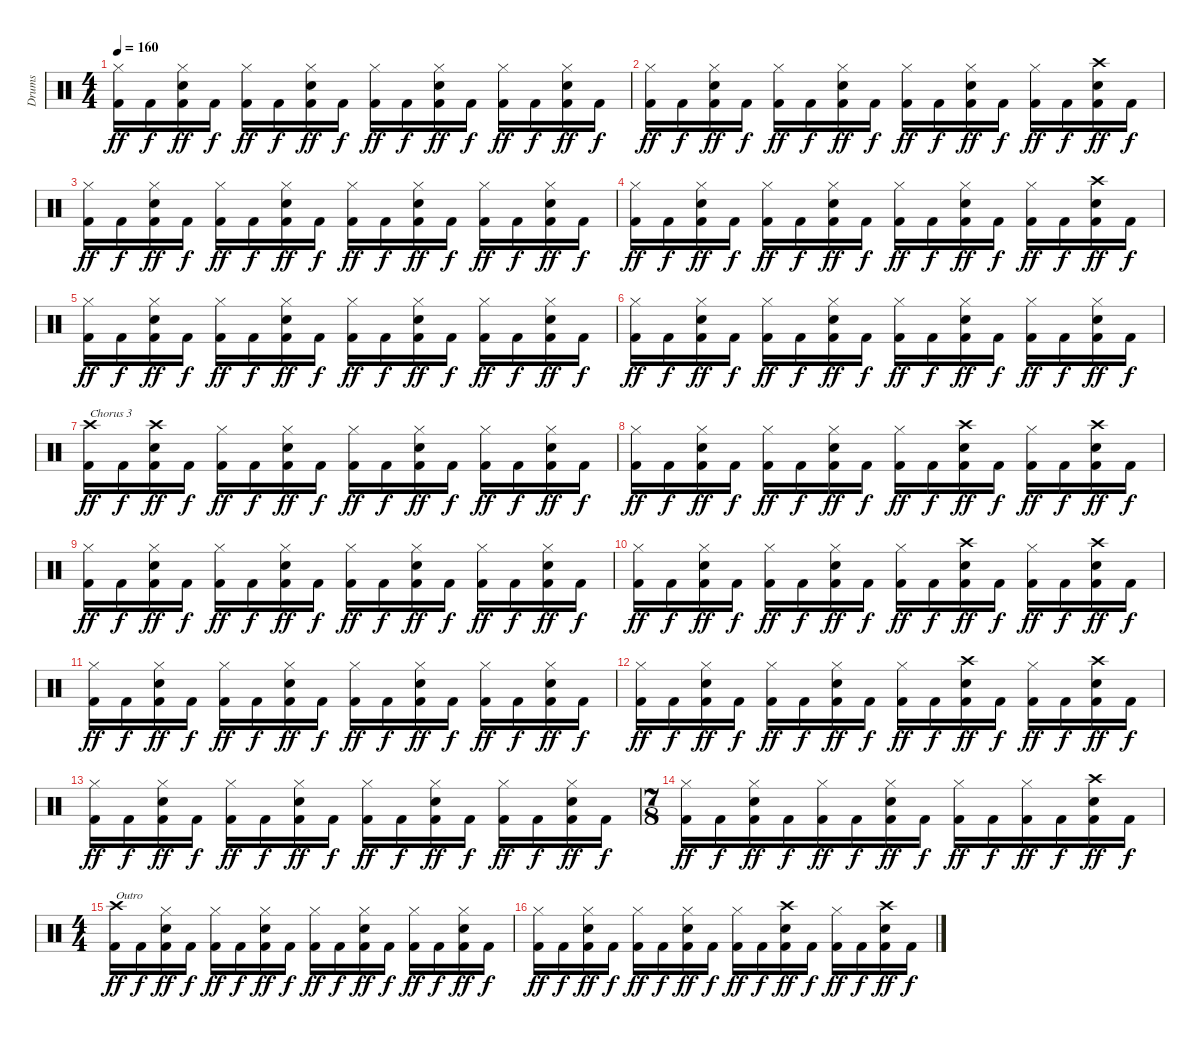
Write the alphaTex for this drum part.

\track ("Drums" "Drums") {instrument percussion}
\staff {score}
\articulation defaults
\ts (4 4)
\tempo 160
\clef neutral
\ks c
("Hi-Hat (closed)" "Kick (hit) 2").16{dy ff} "Kick (hit) 2".16{dy f} ("Hi-Hat (closed)" "Snare (hit) 2" "Kick (hit) 2").16{dy ff} "Kick (hit) 2".16{dy f} ("Hi-Hat (closed)" "Kick (hit) 2").16{dy ff} "Kick (hit) 2".16{dy f} ("Hi-Hat (closed)" "Snare (hit) 2" "Kick (hit) 2").16{dy ff} "Kick (hit) 2".16{dy f} ("Hi-Hat (closed)" "Kick (hit) 2").16{dy ff} "Kick (hit) 2".16{dy f} ("Hi-Hat (closed)" "Snare (hit) 2" "Kick (hit) 2").16{dy ff} "Kick (hit) 2".16{dy f} ("Hi-Hat (closed)" "Kick (hit) 2").16{dy ff} "Kick (hit) 2".16{dy f} ("Hi-Hat (closed)" "Snare (hit) 2" "Kick (hit) 2").16{dy ff} "Kick (hit) 2".16{dy f} |
("Hi-Hat (closed)" "Kick (hit) 2").16{dy ff} "Kick (hit) 2".16{dy f} ("Hi-Hat (closed)" "Snare (hit) 2" "Kick (hit) 2").16{dy ff} "Kick (hit) 2".16{dy f} ("Hi-Hat (closed)" "Kick (hit) 2").16{dy ff} "Kick (hit) 2".16{dy f} ("Hi-Hat (closed)" "Snare (hit) 2" "Kick (hit) 2").16{dy ff} "Kick (hit) 2".16{dy f} ("Hi-Hat (closed)" "Kick (hit) 2").16{dy ff} "Kick (hit) 2".16{dy f} ("Hi-Hat (closed)" "Snare (hit) 2" "Kick (hit) 2").16{dy ff} "Kick (hit) 2".16{dy f} ("Hi-Hat (closed)" "Kick (hit) 2").16{dy ff} "Kick (hit) 2".16{dy f} ("Crash high (hit)" "Snare (hit) 2" "Kick (hit) 2").16{dy ff} "Kick (hit) 2".16{dy f} |
("Hi-Hat (closed)" "Kick (hit) 2").16{dy ff} "Kick (hit) 2".16{dy f} ("Hi-Hat (closed)" "Snare (hit) 2" "Kick (hit) 2").16{dy ff} "Kick (hit) 2".16{dy f} ("Hi-Hat (closed)" "Kick (hit) 2").16{dy ff} "Kick (hit) 2".16{dy f} ("Hi-Hat (closed)" "Snare (hit) 2" "Kick (hit) 2").16{dy ff} "Kick (hit) 2".16{dy f} ("Hi-Hat (closed)" "Kick (hit) 2").16{dy ff} "Kick (hit) 2".16{dy f} ("Hi-Hat (closed)" "Snare (hit) 2" "Kick (hit) 2").16{dy ff} "Kick (hit) 2".16{dy f} ("Hi-Hat (closed)" "Kick (hit) 2").16{dy ff} "Kick (hit) 2".16{dy f} ("Hi-Hat (closed)" "Snare (hit) 2" "Kick (hit) 2").16{dy ff} "Kick (hit) 2".16{dy f} |
("Hi-Hat (closed)" "Kick (hit) 2").16{dy ff} "Kick (hit) 2".16{dy f} ("Hi-Hat (closed)" "Snare (hit) 2" "Kick (hit) 2").16{dy ff} "Kick (hit) 2".16{dy f} ("Hi-Hat (closed)" "Kick (hit) 2").16{dy ff} "Kick (hit) 2".16{dy f} ("Hi-Hat (closed)" "Snare (hit) 2" "Kick (hit) 2").16{dy ff} "Kick (hit) 2".16{dy f} ("Hi-Hat (closed)" "Kick (hit) 2").16{dy ff} "Kick (hit) 2".16{dy f} ("Hi-Hat (closed)" "Snare (hit) 2" "Kick (hit) 2").16{dy ff} "Kick (hit) 2".16{dy f} ("Hi-Hat (closed)" "Kick (hit) 2").16{dy ff} "Kick (hit) 2".16{dy f} ("Crash high (hit)" "Snare (hit) 2" "Kick (hit) 2").16{dy ff} "Kick (hit) 2".16{dy f} |
("Hi-Hat (closed)" "Kick (hit) 2").16{dy ff} "Kick (hit) 2".16{dy f} ("Hi-Hat (closed)" "Snare (hit) 2" "Kick (hit) 2").16{dy ff} "Kick (hit) 2".16{dy f} ("Hi-Hat (closed)" "Kick (hit) 2").16{dy ff} "Kick (hit) 2".16{dy f} ("Hi-Hat (closed)" "Snare (hit) 2" "Kick (hit) 2").16{dy ff} "Kick (hit) 2".16{dy f} ("Hi-Hat (closed)" "Kick (hit) 2").16{dy ff} "Kick (hit) 2".16{dy f} ("Hi-Hat (closed)" "Snare (hit) 2" "Kick (hit) 2").16{dy ff} "Kick (hit) 2".16{dy f} ("Hi-Hat (closed)" "Kick (hit) 2").16{dy ff} "Kick (hit) 2".16{dy f} ("Hi-Hat (closed)" "Snare (hit) 2" "Kick (hit) 2").16{dy ff} "Kick (hit) 2".16{dy f} |
("Hi-Hat (closed)" "Kick (hit) 2").16{dy ff} "Kick (hit) 2".16{dy f} ("Hi-Hat (closed)" "Snare (hit) 2" "Kick (hit) 2").16{dy ff} "Kick (hit) 2".16{dy f} ("Hi-Hat (closed)" "Kick (hit) 2").16{dy ff} "Kick (hit) 2".16{dy f} ("Hi-Hat (closed)" "Snare (hit) 2" "Kick (hit) 2").16{dy ff} "Kick (hit) 2".16{dy f} ("Hi-Hat (closed)" "Kick (hit) 2").16{dy ff} "Kick (hit) 2".16{dy f} ("Hi-Hat (closed)" "Snare (hit) 2" "Kick (hit) 2").16{dy ff} "Kick (hit) 2".16{dy f} ("Hi-Hat (closed)" "Kick (hit) 2").16{dy ff} "Kick (hit) 2".16{dy f} ("Hi-Hat (closed)" "Snare (hit) 2" "Kick (hit) 2").16{dy ff} "Kick (hit) 2".16{dy f} |
("Crash high (hit)" "Kick (hit) 2").16{txt "Chorus 3" dy ff} "Kick (hit) 2".16{dy f} ("Crash high (hit)" "Snare (hit) 2" "Kick (hit) 2").16{dy ff} "Kick (hit) 2".16{dy f} ("Hi-Hat (closed)" "Kick (hit) 2").16{dy ff} "Kick (hit) 2".16{dy f} ("Hi-Hat (closed)" "Snare (hit) 2" "Kick (hit) 2").16{dy ff} "Kick (hit) 2".16{dy f} ("Hi-Hat (closed)" "Kick (hit) 2").16{dy ff} "Kick (hit) 2".16{dy f} ("Hi-Hat (closed)" "Snare (hit) 2" "Kick (hit) 2").16{dy ff} "Kick (hit) 2".16{dy f} ("Hi-Hat (closed)" "Kick (hit) 2").16{dy ff} "Kick (hit) 2".16{dy f} ("Hi-Hat (closed)" "Snare (hit) 2" "Kick (hit) 2").16{dy ff} "Kick (hit) 2".16{dy f} |
("Hi-Hat (closed)" "Kick (hit) 2").16{dy ff} "Kick (hit) 2".16{dy f} ("Hi-Hat (closed)" "Snare (hit) 2" "Kick (hit) 2").16{dy ff} "Kick (hit) 2".16{dy f} ("Hi-Hat (closed)" "Kick (hit) 2").16{dy ff} "Kick (hit) 2".16{dy f} ("Hi-Hat (closed)" "Snare (hit) 2" "Kick (hit) 2").16{dy ff} "Kick (hit) 2".16{dy f} ("Hi-Hat (closed)" "Kick (hit) 2").16{dy ff} "Kick (hit) 2".16{dy f} ("Crash high (hit)" "Snare (hit) 2" "Kick (hit) 2").16{dy ff} "Kick (hit) 2".16{dy f} ("Hi-Hat (closed)" "Kick (hit) 2").16{dy ff} "Kick (hit) 2".16{dy f} ("Crash high (hit)" "Snare (hit) 2" "Kick (hit) 2").16{dy ff} "Kick (hit) 2".16{dy f} |
("Hi-Hat (closed)" "Kick (hit) 2").16{dy ff} "Kick (hit) 2".16{dy f} ("Hi-Hat (closed)" "Snare (hit) 2" "Kick (hit) 2").16{dy ff} "Kick (hit) 2".16{dy f} ("Hi-Hat (closed)" "Kick (hit) 2").16{dy ff} "Kick (hit) 2".16{dy f} ("Hi-Hat (closed)" "Snare (hit) 2" "Kick (hit) 2").16{dy ff} "Kick (hit) 2".16{dy f} ("Hi-Hat (closed)" "Kick (hit) 2").16{dy ff} "Kick (hit) 2".16{dy f} ("Hi-Hat (closed)" "Snare (hit) 2" "Kick (hit) 2").16{dy ff} "Kick (hit) 2".16{dy f} ("Hi-Hat (closed)" "Kick (hit) 2").16{dy ff} "Kick (hit) 2".16{dy f} ("Hi-Hat (closed)" "Snare (hit) 2" "Kick (hit) 2").16{dy ff} "Kick (hit) 2".16{dy f} |
("Hi-Hat (closed)" "Kick (hit) 2").16{dy ff} "Kick (hit) 2".16{dy f} ("Hi-Hat (closed)" "Snare (hit) 2" "Kick (hit) 2").16{dy ff} "Kick (hit) 2".16{dy f} ("Hi-Hat (closed)" "Kick (hit) 2").16{dy ff} "Kick (hit) 2".16{dy f} ("Hi-Hat (closed)" "Snare (hit) 2" "Kick (hit) 2").16{dy ff} "Kick (hit) 2".16{dy f} ("Hi-Hat (closed)" "Kick (hit) 2").16{dy ff} "Kick (hit) 2".16{dy f} ("Crash high (hit)" "Snare (hit) 2" "Kick (hit) 2").16{dy ff} "Kick (hit) 2".16{dy f} ("Hi-Hat (closed)" "Kick (hit) 2").16{dy ff} "Kick (hit) 2".16{dy f} ("Crash high (hit)" "Snare (hit) 2" "Kick (hit) 2").16{dy ff} "Kick (hit) 2".16{dy f} |
("Hi-Hat (closed)" "Kick (hit) 2").16{dy ff} "Kick (hit) 2".16{dy f} ("Hi-Hat (closed)" "Snare (hit) 2" "Kick (hit) 2").16{dy ff} "Kick (hit) 2".16{dy f} ("Hi-Hat (closed)" "Kick (hit) 2").16{dy ff} "Kick (hit) 2".16{dy f} ("Hi-Hat (closed)" "Snare (hit) 2" "Kick (hit) 2").16{dy ff} "Kick (hit) 2".16{dy f} ("Hi-Hat (closed)" "Kick (hit) 2").16{dy ff} "Kick (hit) 2".16{dy f} ("Hi-Hat (closed)" "Snare (hit) 2" "Kick (hit) 2").16{dy ff} "Kick (hit) 2".16{dy f} ("Hi-Hat (closed)" "Kick (hit) 2").16{dy ff} "Kick (hit) 2".16{dy f} ("Hi-Hat (closed)" "Snare (hit) 2" "Kick (hit) 2").16{dy ff} "Kick (hit) 2".16{dy f} |
("Hi-Hat (closed)" "Kick (hit) 2").16{dy ff} "Kick (hit) 2".16{dy f} ("Hi-Hat (closed)" "Snare (hit) 2" "Kick (hit) 2").16{dy ff} "Kick (hit) 2".16{dy f} ("Hi-Hat (closed)" "Kick (hit) 2").16{dy ff} "Kick (hit) 2".16{dy f} ("Hi-Hat (closed)" "Snare (hit) 2" "Kick (hit) 2").16{dy ff} "Kick (hit) 2".16{dy f} ("Hi-Hat (closed)" "Kick (hit) 2").16{dy ff} "Kick (hit) 2".16{dy f} ("Crash high (hit)" "Snare (hit) 2" "Kick (hit) 2").16{dy ff} "Kick (hit) 2".16{dy f} ("Hi-Hat (closed)" "Kick (hit) 2").16{dy ff} "Kick (hit) 2".16{dy f} ("Crash high (hit)" "Snare (hit) 2" "Kick (hit) 2").16{dy ff} "Kick (hit) 2".16{dy f} |
("Hi-Hat (closed)" "Kick (hit) 2").16{dy ff} "Kick (hit) 2".16{dy f} ("Hi-Hat (closed)" "Snare (hit) 2" "Kick (hit) 2").16{dy ff} "Kick (hit) 2".16{dy f} ("Hi-Hat (closed)" "Kick (hit) 2").16{dy ff} "Kick (hit) 2".16{dy f} ("Hi-Hat (closed)" "Snare (hit) 2" "Kick (hit) 2").16{dy ff} "Kick (hit) 2".16{dy f} ("Hi-Hat (closed)" "Kick (hit) 2").16{dy ff} "Kick (hit) 2".16{dy f} ("Hi-Hat (closed)" "Snare (hit) 2" "Kick (hit) 2").16{dy ff} "Kick (hit) 2".16{dy f} ("Hi-Hat (closed)" "Kick (hit) 2").16{dy ff} "Kick (hit) 2".16{dy f} ("Hi-Hat (closed)" "Snare (hit) 2" "Kick (hit) 2").16{dy ff} "Kick (hit) 2".16{dy f} |
\ts (7 8)
("Hi-Hat (closed)" "Kick (hit) 2").16{dy ff} "Kick (hit) 2".16{dy f} ("Hi-Hat (closed)" "Snare (hit) 2" "Kick (hit) 2").16{dy ff} "Kick (hit) 2".16{dy f} ("Hi-Hat (closed)" "Kick (hit) 2").16{dy ff} "Kick (hit) 2".16{dy f} ("Hi-Hat (closed)" "Snare (hit) 2" "Kick (hit) 2").16{dy ff} "Kick (hit) 2".16{dy f} ("Hi-Hat (closed)" "Kick (hit) 2").16{dy ff} "Kick (hit) 2".16{dy f} ("Hi-Hat (closed)" "Kick (hit) 2").16{dy ff} "Kick (hit) 2".16{dy f} ("Crash high (hit)" "Snare (hit) 2" "Kick (hit) 2").16{dy ff} "Kick (hit) 2".16{dy f} |
\ts (4 4)
("Crash high (hit)" "Kick (hit) 2").16{txt "Outro" dy ff} "Kick (hit) 2".16{dy f} ("Hi-Hat (closed)" "Snare (hit) 2" "Kick (hit) 2").16{dy ff} "Kick (hit) 2".16{dy f} ("Hi-Hat (closed)" "Kick (hit) 2").16{dy ff} "Kick (hit) 2".16{dy f} ("Hi-Hat (closed)" "Snare (hit) 2" "Kick (hit) 2").16{dy ff} "Kick (hit) 2".16{dy f} ("Hi-Hat (closed)" "Kick (hit) 2").16{dy ff} "Kick (hit) 2".16{dy f} ("Hi-Hat (closed)" "Snare (hit) 2" "Kick (hit) 2").16{dy ff} "Kick (hit) 2".16{dy f} ("Hi-Hat (closed)" "Kick (hit) 2").16{dy ff} "Kick (hit) 2".16{dy f} ("Hi-Hat (closed)" "Snare (hit) 2" "Kick (hit) 2").16{dy ff} "Kick (hit) 2".16{dy f} |
("Hi-Hat (closed)" "Kick (hit) 2").16{dy ff} "Kick (hit) 2".16{dy f} ("Hi-Hat (closed)" "Snare (hit) 2" "Kick (hit) 2").16{dy ff} "Kick (hit) 2".16{dy f} ("Hi-Hat (closed)" "Kick (hit) 2").16{dy ff} "Kick (hit) 2".16{dy f} ("Hi-Hat (closed)" "Snare (hit) 2" "Kick (hit) 2").16{dy ff} "Kick (hit) 2".16{dy f} ("Hi-Hat (closed)" "Kick (hit) 2").16{dy ff} "Kick (hit) 2".16{dy f} ("Crash high (hit)" "Snare (hit) 2" "Kick (hit) 2").16{dy ff} "Kick (hit) 2".16{dy f} ("Hi-Hat (closed)" "Kick (hit) 2").16{dy ff} "Kick (hit) 2".16{dy f} ("Crash high (hit)" "Snare (hit) 2" "Kick (hit) 2").16{dy ff} "Kick (hit) 2".16{dy f}
